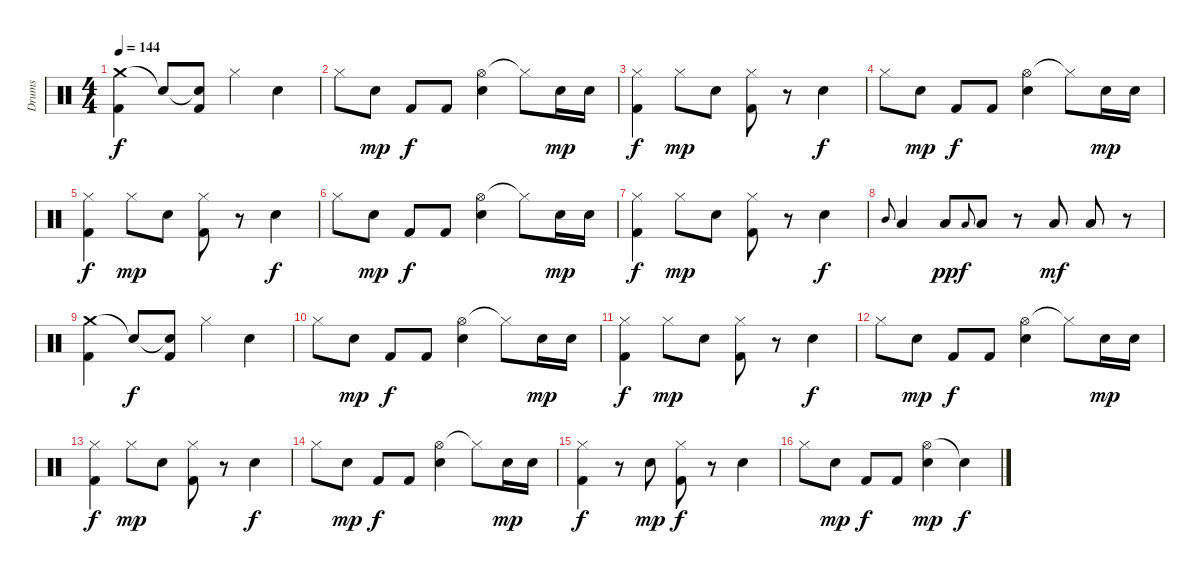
\track ("Drums" "Drums") {instrument percussion}
\staff {score}
\articulation defaults
\ts (4 4)
\tempo 144
\clef neutral
\ks c
("Crash medium (hit)" "Kick (hit) 2").4{dy f} "Snare (hit)"{t}.8 ("Snare (hit)"{t} "Kick (hit) 2").8 "Hi-Hat (closed)".4 "Electric Snare (hit)".4 |
"Hi-Hat (closed)".8 "Electric Snare (hit)".8{dy mp} "Kick (hit) 2".8{dy f} "Kick (hit) 2".8 ("Hi-Hat (open)" "Electric Snare (hit)").4 "Hi-Hat (closed)"{t}.8 "Electric Snare (hit)".16{dy mp} "Electric Snare (hit)".16 |
("Hi-Hat (closed)" "Kick (hit) 2").4{dy f} "Hi-Hat (closed)".8{dy mp} "Electric Snare (hit)".8 ("Hi-Hat (closed)" "Kick (hit) 2").8 r.8 "Electric Snare (hit)".4{dy f} |
"Hi-Hat (closed)".8 "Electric Snare (hit)".8{dy mp} "Kick (hit) 2".8{dy f} "Kick (hit) 2".8 ("Hi-Hat (open)" "Electric Snare (hit)").4 "Hi-Hat (closed)"{t}.8 "Electric Snare (hit)".16{dy mp} "Electric Snare (hit)".16 |
("Hi-Hat (closed)" "Kick (hit) 2").4{dy f} "Hi-Hat (closed)".8{dy mp} "Electric Snare (hit)".8 ("Hi-Hat (closed)" "Kick (hit) 2").8 r.8 "Electric Snare (hit)".4{dy f} |
"Hi-Hat (closed)".8 "Electric Snare (hit)".8{dy mp} "Kick (hit) 2".8{dy f} "Kick (hit) 2".8 ("Hi-Hat (open)" "Electric Snare (hit)").4 "Hi-Hat (closed)"{t}.8 "Electric Snare (hit)".16{dy mp} "Electric Snare (hit)".16 |
("Hi-Hat (closed)" "Kick (hit) 2").4{dy f} "Hi-Hat (closed)".8{dy mp} "Electric Snare (hit)".8 ("Hi-Hat (closed)" "Kick (hit) 2").8 r.8 "Electric Snare (hit)".4{dy f} |
"Mid Tom (hit)".8{gr onbeat} "Low Tom (hit)".4 "Low Floor Tom (hit)".8{dy pp} "Low Tom (hit)".8{gr onbeat dy f} "Low Tom (hit)".8 r.8 "Low Floor Tom (hit)".8{dy mf} "Low Floor Tom (hit)".8 r.8 |
("Crash medium (hit)" "Kick (hit) 2").4 "Snare (hit)"{t}.8{dy f} ("Snare (hit)"{t} "Kick (hit) 2").8 "Hi-Hat (closed)".4 "Electric Snare (hit)".4 |
"Hi-Hat (closed)".8 "Electric Snare (hit)".8{dy mp} "Kick (hit) 2".8{dy f} "Kick (hit) 2".8 ("Hi-Hat (open)" "Electric Snare (hit)").4 "Hi-Hat (closed)"{t}.8 "Electric Snare (hit)".16{dy mp} "Electric Snare (hit)".16 |
("Hi-Hat (closed)" "Kick (hit) 2").4{dy f} "Hi-Hat (closed)".8{dy mp} "Electric Snare (hit)".8 ("Hi-Hat (closed)" "Kick (hit) 2").8 r.8 "Electric Snare (hit)".4{dy f} |
"Hi-Hat (closed)".8 "Electric Snare (hit)".8{dy mp} "Kick (hit) 2".8{dy f} "Kick (hit) 2".8 ("Hi-Hat (open)" "Electric Snare (hit)").4 "Hi-Hat (closed)"{t}.8 "Electric Snare (hit)".16{dy mp} "Electric Snare (hit)".16 |
("Hi-Hat (closed)" "Kick (hit) 2").4{dy f} "Hi-Hat (closed)".8{dy mp} "Electric Snare (hit)".8 ("Hi-Hat (closed)" "Kick (hit) 2").8 r.8 "Electric Snare (hit)".4{dy f} |
"Hi-Hat (closed)".8 "Electric Snare (hit)".8{dy mp} "Kick (hit) 2".8{dy f} "Kick (hit) 2".8 ("Hi-Hat (open)" "Electric Snare (hit)").4 "Hi-Hat (closed)"{t}.8 "Electric Snare (hit)".16{dy mp} "Electric Snare (hit)".16 |
("Hi-Hat (closed)" "Kick (hit) 2").4{dy f} r.8 "Electric Snare (hit)".8{dy mp} ("Hi-Hat (closed)" "Kick (hit) 2").8{dy f} r.8 "Electric Snare (hit)".4 |
"Hi-Hat (closed)".8 "Electric Snare (hit)".8{dy mp} "Kick (hit) 2".8{dy f} "Kick (hit) 2".8 ("Hi-Hat (open)" "Electric Snare (hit)").4{dy mp} "Snare (hit)"{t}.4{dy f}
